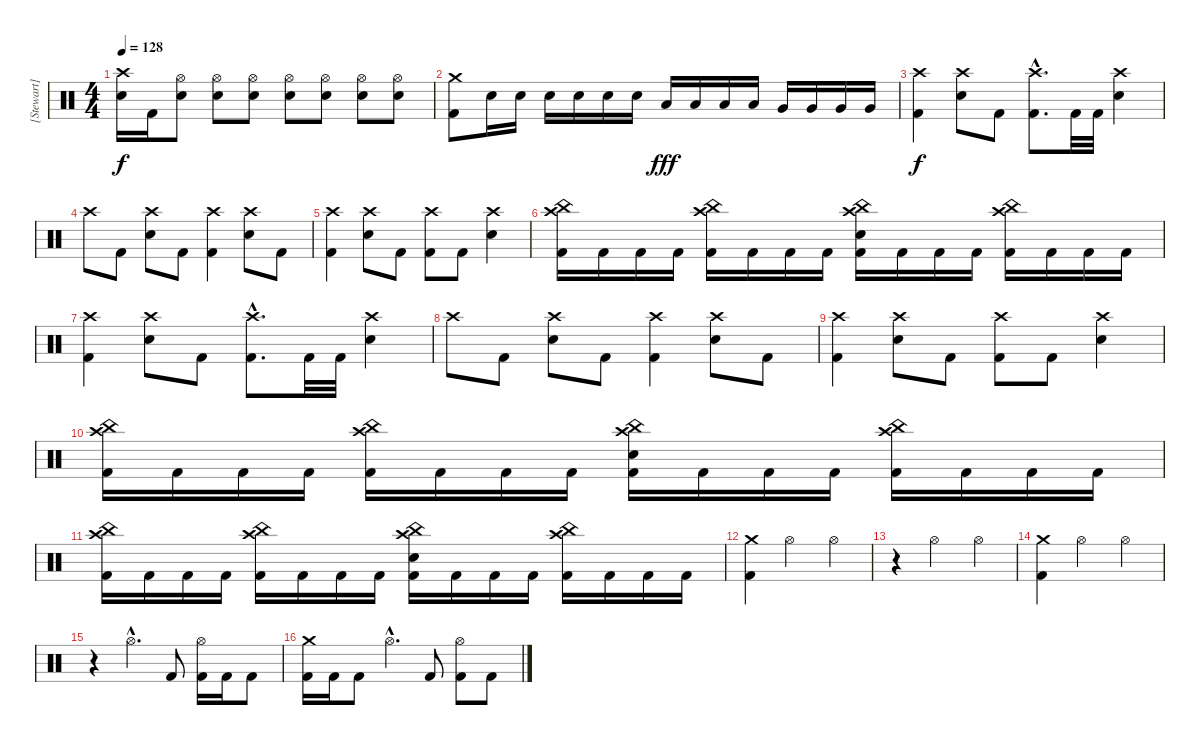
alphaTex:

\track ("[Stewart]" "[Stewart]") {instrument percussion}
\staff {score}
\articulation defaults
\ts (4 4)
\tempo 128
\clef neutral
\ks c
("Crash high (hit)" "Electric Snare (hit)").16{dy f} "Kick (hit) 2".16 ("Hi-Hat (open)" "Electric Snare (hit)").8 ("Hi-Hat (open)" "Electric Snare (hit)").8 ("Hi-Hat (open)" "Electric Snare (hit)").8 ("Hi-Hat (open)" "Electric Snare (hit)").8 ("Hi-Hat (open)" "Electric Snare (hit)").8 ("Hi-Hat (open)" "Electric Snare (hit)").8 ("Hi-Hat (open)" "Electric Snare (hit)").8 |
("Crash medium (hit)" "Kick (hit) 2").8 "Electric Snare (hit)".16 "Electric Snare (hit)".16 "Electric Snare (hit)".16 "Electric Snare (hit)".16 "Electric Snare (hit)".16 "Electric Snare (hit)".16 "Low Tom (hit)".16{dy fff} "Low Tom (hit)".16 "Low Tom (hit)".16 "Low Tom (hit)".16 "Very Low Tom (hit)".16 "Very Low Tom (hit)".16 "Very Low Tom (hit)".16 "Very Low Tom (hit)".16 |
("Crash high (hit)" "Kick (hit) 2").4{dy f} ("Crash high (hit)" "Electric Snare (hit)").8 "Kick (hit) 2".8 ("Crash high (hit)"{hac} "Kick (hit) 2"{hac}).8{d} "Kick (hit) 2".32 "Kick (hit) 2".32 ("Crash high (hit)" "Electric Snare (hit)").4 |
"Crash high (hit)".8 "Kick (hit) 2".8 ("Crash high (hit)" "Electric Snare (hit)").8 "Kick (hit) 2".8 ("Crash high (hit)" "Kick (hit) 2").4 ("Crash high (hit)" "Electric Snare (hit)").8 "Kick (hit) 2".8 |
("Crash high (hit)" "Kick (hit) 2").4 ("Crash high (hit)" "Electric Snare (hit)").8 "Kick (hit) 2".8 ("Crash high (hit)" "Kick (hit) 2").8 "Kick (hit) 2".8 ("Crash high (hit)" "Electric Snare (hit)").4 |
("China (hit)" "Crash high (hit)" "Kick (hit) 2").16 "Kick (hit) 2".16 "Kick (hit) 2".16 "Kick (hit) 2".16 ("China (hit)" "Crash high (hit)" "Kick (hit) 2").16 "Kick (hit) 2".16 "Kick (hit) 2".16 "Kick (hit) 2".16 ("China (hit)" "Crash high (hit)" "Electric Snare (hit)" "Kick (hit) 2").16 "Kick (hit) 2".16 "Kick (hit) 2".16 "Kick (hit) 2".16 ("China (hit)" "Crash high (hit)" "Kick (hit) 2").16 "Kick (hit) 2".16 "Kick (hit) 2".16 "Kick (hit) 2".16 |
("Crash high (hit)" "Kick (hit) 2").4 ("Crash high (hit)" "Electric Snare (hit)").8 "Kick (hit) 2".8 ("Crash high (hit)"{hac} "Kick (hit) 2"{hac}).8{d} "Kick (hit) 2".32 "Kick (hit) 2".32 ("Crash high (hit)" "Electric Snare (hit)").4 |
"Crash high (hit)".8 "Kick (hit) 2".8 ("Crash high (hit)" "Electric Snare (hit)").8 "Kick (hit) 2".8 ("Crash high (hit)" "Kick (hit) 2").4 ("Crash high (hit)" "Electric Snare (hit)").8 "Kick (hit) 2".8 |
("Crash high (hit)" "Kick (hit) 2").4 ("Crash high (hit)" "Electric Snare (hit)").8 "Kick (hit) 2".8 ("Crash high (hit)" "Kick (hit) 2").8 "Kick (hit) 2".8 ("Crash high (hit)" "Electric Snare (hit)").4 |
("China (hit)" "Crash high (hit)" "Kick (hit) 2").16 "Kick (hit) 2".16 "Kick (hit) 2".16 "Kick (hit) 2".16 ("China (hit)" "Crash high (hit)" "Kick (hit) 2").16 "Kick (hit) 2".16 "Kick (hit) 2".16 "Kick (hit) 2".16 ("China (hit)" "Crash high (hit)" "Electric Snare (hit)" "Kick (hit) 2").16 "Kick (hit) 2".16 "Kick (hit) 2".16 "Kick (hit) 2".16 ("China (hit)" "Crash high (hit)" "Kick (hit) 2").16 "Kick (hit) 2".16 "Kick (hit) 2".16 "Kick (hit) 2".16 |
("China (hit)" "Crash high (hit)" "Kick (hit) 2").16 "Kick (hit) 2".16 "Kick (hit) 2".16 "Kick (hit) 2".16 ("China (hit)" "Crash high (hit)" "Kick (hit) 2").16 "Kick (hit) 2".16 "Kick (hit) 2".16 "Kick (hit) 2".16 ("China (hit)" "Crash high (hit)" "Electric Snare (hit)" "Kick (hit) 2").16 "Kick (hit) 2".16 "Kick (hit) 2".16 "Kick (hit) 2".16 ("China (hit)" "Crash high (hit)" "Kick (hit) 2").16 "Kick (hit) 2".16 "Kick (hit) 2".16 "Kick (hit) 2".16 |
("Crash medium (hit)" "Kick (hit) 2").4 "Hi-Hat (open)".2 "Hi-Hat (open)".4 |
r.4 "Hi-Hat (open)".2 "Hi-Hat (open)".4 |
("Crash medium (hit)" "Kick (hit) 2").4 "Hi-Hat (open)".2 "Hi-Hat (open)".4 |
r.4 "Hi-Hat (open)"{hac}.4{d} "Kick (hit) 2".8 ("Hi-Hat (open)" "Kick (hit) 2").16 "Kick (hit) 2".16 "Kick (hit) 2".8 |
("Crash medium (hit)" "Kick (hit) 2").16 "Kick (hit) 2".16 "Kick (hit) 2".8 "Hi-Hat (open)"{hac}.4{d} "Kick (hit) 2".8 ("Hi-Hat (open)" "Kick (hit) 2").8 "Kick (hit) 2".8
